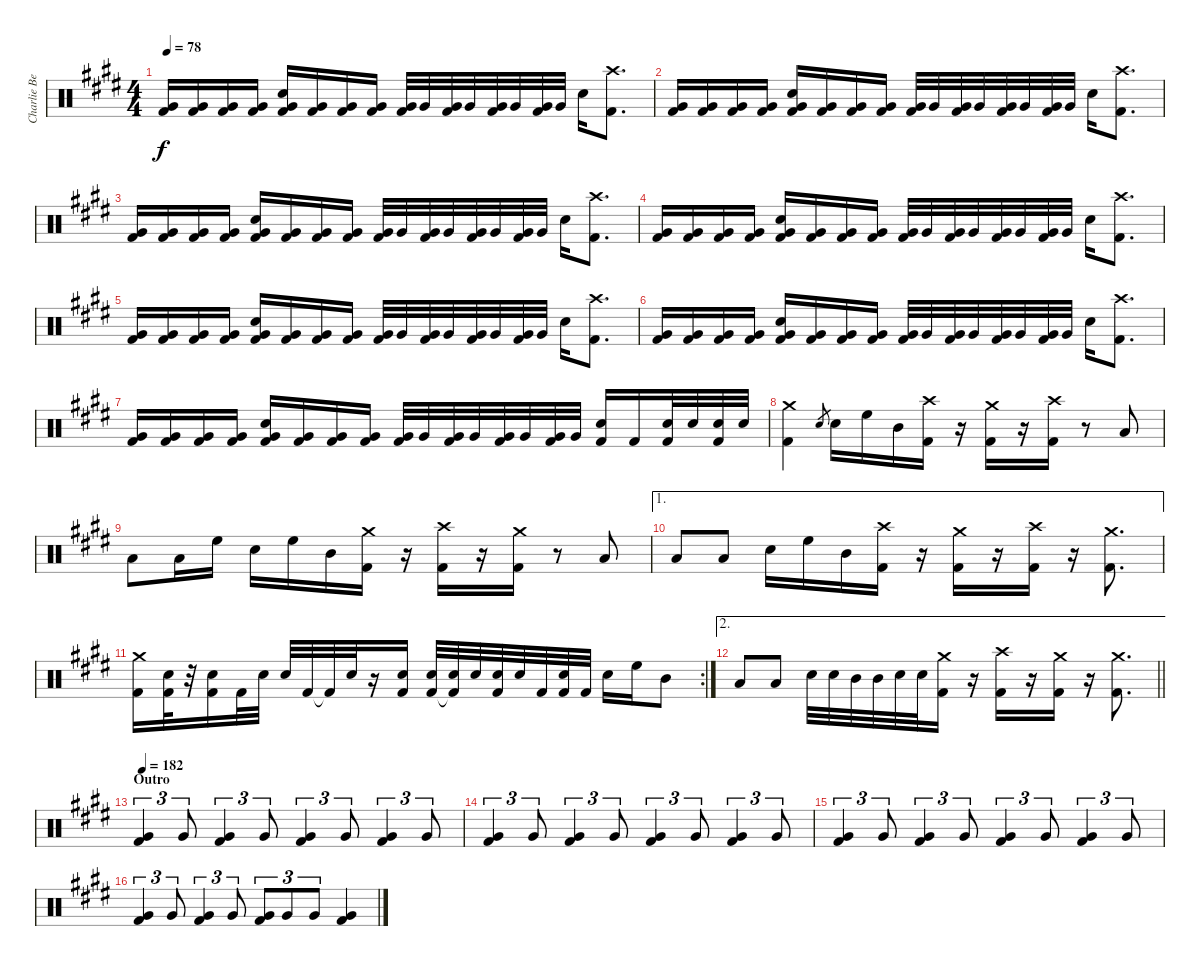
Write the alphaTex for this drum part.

\track ("Charlie Benate " "Charlie Be") {instrument percussion}
\staff {score}
\articulation defaults
\ts (4 4)
\tempo 78
\clef neutral
\ks e
("Very Low Tom (hit)" "Kick (hit) 2").16{dy f} ("Very Low Tom (hit)" "Kick (hit) 2").16 ("Very Low Tom (hit)" "Kick (hit) 2").16 ("Very Low Tom (hit)" "Kick (hit) 2").16 ("Snare (hit) 2" "Very Low Tom (hit)" "Kick (hit) 2").16 ("Very Low Tom (hit)" "Kick (hit) 2").16 ("Very Low Tom (hit)" "Kick (hit) 2").16 ("Very Low Tom (hit)" "Kick (hit) 2").16 ("Very Low Tom (hit)" "Kick (hit) 2").32 "Very Low Tom (hit)".32 ("Very Low Tom (hit)" "Kick (hit) 2").32 "Very Low Tom (hit)".32 ("Very Low Tom (hit)" "Kick (hit) 2").32 "Very Low Tom (hit)".32 ("Very Low Tom (hit)" "Kick (hit) 2").32 "Very Low Tom (hit)".32 "Snare (hit) 2".16 ("Crash high (hit)" "Kick (hit) 2").8{d} |
("Very Low Tom (hit)" "Kick (hit) 2").16 ("Very Low Tom (hit)" "Kick (hit) 2").16 ("Very Low Tom (hit)" "Kick (hit) 2").16 ("Very Low Tom (hit)" "Kick (hit) 2").16 ("Snare (hit) 2" "Very Low Tom (hit)" "Kick (hit) 2").16 ("Very Low Tom (hit)" "Kick (hit) 2").16 ("Very Low Tom (hit)" "Kick (hit) 2").16 ("Very Low Tom (hit)" "Kick (hit) 2").16 ("Very Low Tom (hit)" "Kick (hit) 2").32 "Very Low Tom (hit)".32 ("Very Low Tom (hit)" "Kick (hit) 2").32 "Very Low Tom (hit)".32 ("Very Low Tom (hit)" "Kick (hit) 2").32 "Very Low Tom (hit)".32 ("Very Low Tom (hit)" "Kick (hit) 2").32 "Very Low Tom (hit)".32 "Snare (hit) 2".16 ("Crash high (hit)" "Kick (hit) 2").8{d} |
("Very Low Tom (hit)" "Kick (hit) 2").16 ("Very Low Tom (hit)" "Kick (hit) 2").16 ("Very Low Tom (hit)" "Kick (hit) 2").16 ("Very Low Tom (hit)" "Kick (hit) 2").16 ("Snare (hit) 2" "Very Low Tom (hit)" "Kick (hit) 2").16 ("Very Low Tom (hit)" "Kick (hit) 2").16 ("Very Low Tom (hit)" "Kick (hit) 2").16 ("Very Low Tom (hit)" "Kick (hit) 2").16 ("Very Low Tom (hit)" "Kick (hit) 2").32 "Very Low Tom (hit)".32 ("Very Low Tom (hit)" "Kick (hit) 2").32 "Very Low Tom (hit)".32 ("Very Low Tom (hit)" "Kick (hit) 2").32 "Very Low Tom (hit)".32 ("Very Low Tom (hit)" "Kick (hit) 2").32 "Very Low Tom (hit)".32 "Snare (hit) 2".16 ("Crash high (hit)" "Kick (hit) 2").8{d} |
("Very Low Tom (hit)" "Kick (hit) 2").16 ("Very Low Tom (hit)" "Kick (hit) 2").16 ("Very Low Tom (hit)" "Kick (hit) 2").16 ("Very Low Tom (hit)" "Kick (hit) 2").16 ("Snare (hit) 2" "Very Low Tom (hit)" "Kick (hit) 2").16 ("Very Low Tom (hit)" "Kick (hit) 2").16 ("Very Low Tom (hit)" "Kick (hit) 2").16 ("Very Low Tom (hit)" "Kick (hit) 2").16 ("Very Low Tom (hit)" "Kick (hit) 2").32 "Very Low Tom (hit)".32 ("Very Low Tom (hit)" "Kick (hit) 2").32 "Very Low Tom (hit)".32 ("Very Low Tom (hit)" "Kick (hit) 2").32 "Very Low Tom (hit)".32 ("Very Low Tom (hit)" "Kick (hit) 2").32 "Very Low Tom (hit)".32 "Snare (hit) 2".16 ("Crash high (hit)" "Kick (hit) 2").8{d} |
("Very Low Tom (hit)" "Kick (hit) 2").16 ("Very Low Tom (hit)" "Kick (hit) 2").16 ("Very Low Tom (hit)" "Kick (hit) 2").16 ("Very Low Tom (hit)" "Kick (hit) 2").16 ("Snare (hit) 2" "Very Low Tom (hit)" "Kick (hit) 2").16 ("Very Low Tom (hit)" "Kick (hit) 2").16 ("Very Low Tom (hit)" "Kick (hit) 2").16 ("Very Low Tom (hit)" "Kick (hit) 2").16 ("Very Low Tom (hit)" "Kick (hit) 2").32 "Very Low Tom (hit)".32 ("Very Low Tom (hit)" "Kick (hit) 2").32 "Very Low Tom (hit)".32 ("Very Low Tom (hit)" "Kick (hit) 2").32 "Very Low Tom (hit)".32 ("Very Low Tom (hit)" "Kick (hit) 2").32 "Very Low Tom (hit)".32 "Snare (hit) 2".16 ("Crash high (hit)" "Kick (hit) 2").8{d} |
("Very Low Tom (hit)" "Kick (hit) 2").16 ("Very Low Tom (hit)" "Kick (hit) 2").16 ("Very Low Tom (hit)" "Kick (hit) 2").16 ("Very Low Tom (hit)" "Kick (hit) 2").16 ("Snare (hit) 2" "Very Low Tom (hit)" "Kick (hit) 2").16 ("Very Low Tom (hit)" "Kick (hit) 2").16 ("Very Low Tom (hit)" "Kick (hit) 2").16 ("Very Low Tom (hit)" "Kick (hit) 2").16 ("Very Low Tom (hit)" "Kick (hit) 2").32 "Very Low Tom (hit)".32 ("Very Low Tom (hit)" "Kick (hit) 2").32 "Very Low Tom (hit)".32 ("Very Low Tom (hit)" "Kick (hit) 2").32 "Very Low Tom (hit)".32 ("Very Low Tom (hit)" "Kick (hit) 2").32 "Very Low Tom (hit)".32 "Snare (hit) 2".16 ("Crash high (hit)" "Kick (hit) 2").8{d} |
("Very Low Tom (hit)" "Kick (hit) 2").16 ("Very Low Tom (hit)" "Kick (hit) 2").16 ("Very Low Tom (hit)" "Kick (hit) 2").16 ("Very Low Tom (hit)" "Kick (hit) 2").16 ("Snare (hit) 2" "Very Low Tom (hit)" "Kick (hit) 2").16 ("Very Low Tom (hit)" "Kick (hit) 2").16 ("Very Low Tom (hit)" "Kick (hit) 2").16 ("Very Low Tom (hit)" "Kick (hit) 2").16 ("Very Low Tom (hit)" "Kick (hit) 2").32 "Very Low Tom (hit)".32 ("Very Low Tom (hit)" "Kick (hit) 2").32 "Very Low Tom (hit)".32 ("Very Low Tom (hit)" "Kick (hit) 2").32 "Very Low Tom (hit)".32 ("Very Low Tom (hit)" "Kick (hit) 2").32 "Very Low Tom (hit)".32 ("Snare (hit) 2" "Kick (hit) 2").16 "Kick (hit) 2".16 ("Snare (hit) 2" "Kick (hit) 2").32 "Snare (hit) 2".32 ("Snare (hit) 2" "Kick (hit) 2").32 "Snare (hit) 2".32 |
("Crash medium (hit)" "Kick (hit) 2").4 "Snare (hit) 2".8{gr} "Snare (hit) 2".16 "High Floor Tom (hit)".16 "Mid Tom (hit)".16 ("Crash high (hit)" "Kick (hit) 2").16 r.16 ("Crash medium (hit)" "Kick (hit) 2").16 r.16 ("Crash high (hit)" "Kick (hit) 2").16 r.8 "Low Floor Tom (hit)".8 |
"Low Floor Tom (hit)".8 "Low Floor Tom (hit)".16 "High Floor Tom (hit)".16 "Snare (hit) 2".16 "High Floor Tom (hit)".16 "Mid Tom (hit)".16 ("Crash medium (hit)" "Kick (hit) 2").16 r.16 ("Crash high (hit)" "Kick (hit) 2").16 r.16 ("Crash medium (hit)" "Kick (hit) 2").16 r.8 "Low Floor Tom (hit)".8 |
\ae 1 "Low Floor Tom (hit)".8 "Low Floor Tom (hit)".8 "Snare (hit) 2".16 "High Floor Tom (hit)".16 "Mid Tom (hit)".16
("Crash high (hit)" "Kick (hit) 2").16 r.16 ("Crash medium (hit)" "Kick (hit) 2").16 r.16 ("Crash high (hit)" "Kick (hit) 2").16 r.16 ("Crash medium (hit)" "Kick (hit) 2").8{d} |
\rc 2
("Crash medium (hit)" "Kick (hit) 2").16 ("Snare (hit) 2" "Kick (hit) 2").32 r.32 ("Snare (hit) 2" "Kick (hit) 2").16 "Kick (hit) 2".32 "Snare (hit) 2".32 "Snare (hit) 2".32 "Kick (hit) 2".32 "Kick (hit) 2"{t}.32 "Snare (hit) 2".32 r.16 ("Snare (hit) 2" "Kick (hit) 2").16 ("Snare (hit) 2" "Kick (hit) 2").32 ("Snare (hit) 2" "Kick (hit) 2"{t}).32 "Snare (hit) 2".32 ("Snare (hit) 2" "Kick (hit) 2").32 "Snare (hit) 2".32 "Kick (hit) 2".32 ("Snare (hit) 2" "Kick (hit) 2").32 "Kick (hit) 2".32 "Snare (hit) 2".16 "High Floor Tom (hit)".16 "Mid Tom (hit)".8 |
\ae 2
\barLineRight lightlight "Low Floor Tom (hit)".8 "Low Floor Tom (hit)".8 "Snare (hit) 2".32 "Snare (hit) 2".32 "Mid Tom (hit)".32 "Mid Tom (hit)".32 "Snare (hit) 2".32 "Snare (hit) 2".32
("Crash medium (hit)" "Kick (hit) 2").16 r.16 ("Crash high (hit)" "Kick (hit) 2").16 r.16 ("Crash medium (hit)" "Kick (hit) 2").16 r.16 ("Crash medium (hit)" "Kick (hit) 2").8{d} |
\section ("" "Outro")
\tempo 182
("Very Low Tom (hit)" "Kick (hit) 2").4{tu (3 2)} "Very Low Tom (hit)".8{tu (3 2)} ("Very Low Tom (hit)" "Kick (hit) 2").4{tu (3 2)} "Very Low Tom (hit)".8{tu (3 2)} ("Very Low Tom (hit)" "Kick (hit) 2").4{tu (3 2)} "Very Low Tom (hit)".8{tu (3 2)} ("Very Low Tom (hit)" "Kick (hit) 2").4{tu (3 2)} "Very Low Tom (hit)".8{tu (3 2)} |
("Very Low Tom (hit)" "Kick (hit) 2").4{tu (3 2)} "Very Low Tom (hit)".8{tu (3 2)} ("Very Low Tom (hit)" "Kick (hit) 2").4{tu (3 2)} "Very Low Tom (hit)".8{tu (3 2)} ("Very Low Tom (hit)" "Kick (hit) 2").4{tu (3 2)} "Very Low Tom (hit)".8{tu (3 2)} ("Very Low Tom (hit)" "Kick (hit) 2").4{tu (3 2)} "Very Low Tom (hit)".8{tu (3 2)} |
("Very Low Tom (hit)" "Kick (hit) 2").4{tu (3 2)} "Very Low Tom (hit)".8{tu (3 2)} ("Very Low Tom (hit)" "Kick (hit) 2").4{tu (3 2)} "Very Low Tom (hit)".8{tu (3 2)} ("Very Low Tom (hit)" "Kick (hit) 2").4{tu (3 2)} "Very Low Tom (hit)".8{tu (3 2)} ("Very Low Tom (hit)" "Kick (hit) 2").4{tu (3 2)} "Very Low Tom (hit)".8{tu (3 2)} |
("Very Low Tom (hit)" "Kick (hit) 2").4{tu (3 2)} "Very Low Tom (hit)".8{tu (3 2)} ("Very Low Tom (hit)" "Kick (hit) 2").4{tu (3 2)} "Very Low Tom (hit)".8{tu (3 2)} ("Very Low Tom (hit)" "Kick (hit) 2").8{tu (3 2)} "Very Low Tom (hit)".8{tu (3 2)} "Very Low Tom (hit)".8{tu (3 2)} ("Very Low Tom (hit)" "Kick (hit) 2").4
